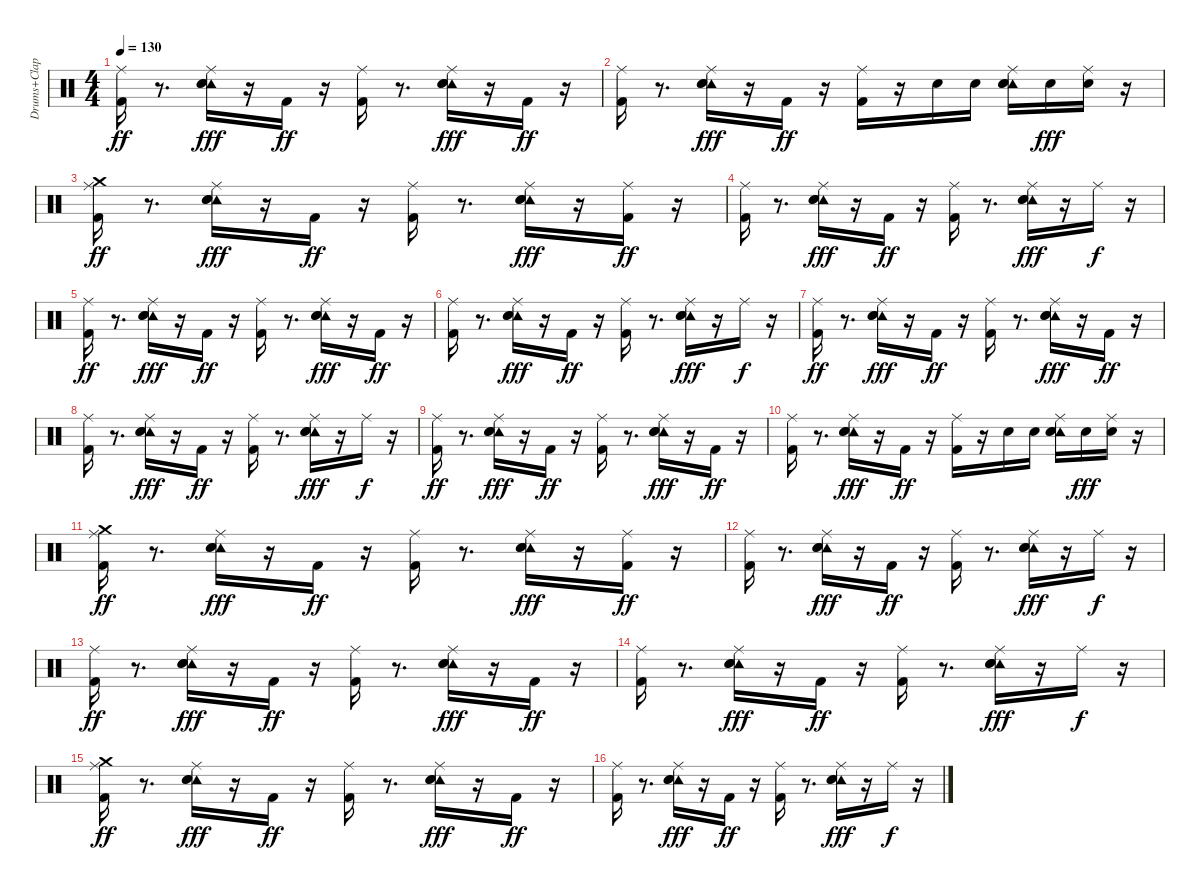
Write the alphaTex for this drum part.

\track ("Drums+Clap" "Drums+Clap") {instrument percussion}
\staff {score}
\articulation defaults
\ts (4 4)
\tempo 130
\clef neutral
\ks c
("Ride (middle)" "Kick (hit) 2").16{dy ff} r.8{d} ("Tambourine (hit)" "Ride (middle)" "Electric Snare (hit)" "Hand Clap (hit)").16{dy fff} r.16 "Kick (hit) 2".16{dy ff} r.16 ("Ride (middle)" "Kick (hit) 2").16 r.8{d} ("Tambourine (hit)" "Ride (middle)" "Electric Snare (hit)" "Hand Clap (hit)").16{dy fff} r.16 "Kick (hit) 2".16{dy ff} r.16 |
("Ride (middle)" "Kick (hit) 2").16 r.8{d} ("Tambourine (hit)" "Ride (middle)" "Electric Snare (hit)" "Hand Clap (hit)").16{dy fff} r.16 "Kick (hit) 2".16{dy ff} r.16 ("Ride (middle)" "Kick (hit) 2").16 r.16 "Electric Snare (hit)".16 "Electric Snare (hit)".16 ("Tambourine (hit)" "Ride (middle)" "Electric Snare (hit)" "Hand Clap (hit)").16 "Electric Snare (hit)".16{dy fff} ("Ride (middle)" "Electric Snare (hit)").16 r.16 |
("Crash medium (hit)" "Ride (middle)" "Kick (hit) 2").16{dy ff} r.8{d} ("Tambourine (hit)" "Ride (middle)" "Electric Snare (hit)" "Hand Clap (hit)").16{dy fff} r.16 "Kick (hit) 2".16{dy ff} r.16 ("Ride (middle)" "Kick (hit) 2").16 r.8{d} ("Tambourine (hit)" "Ride (middle)" "Electric Snare (hit)" "Hand Clap (hit)").16{dy fff} r.16 ("Ride (middle)" "Kick (hit) 2").16{dy ff} r.16 |
("Ride (middle)" "Kick (hit) 2").16 r.8{d} ("Tambourine (hit)" "Ride (middle)" "Electric Snare (hit)" "Hand Clap (hit)").16{dy fff} r.16 "Kick (hit) 2".16{dy ff} r.16 ("Ride (middle)" "Kick (hit) 2").16 r.8{d} ("Tambourine (hit)" "Ride (middle)" "Electric Snare (hit)" "Hand Clap (hit)").16{dy fff} r.16 "Ride (middle)".16{dy f} r.16 |
("Ride (middle)" "Kick (hit) 2").16{dy ff} r.8{d} ("Tambourine (hit)" "Ride (middle)" "Electric Snare (hit)" "Hand Clap (hit)").16{dy fff} r.16 "Kick (hit) 2".16{dy ff} r.16 ("Ride (middle)" "Kick (hit) 2").16 r.8{d} ("Tambourine (hit)" "Ride (middle)" "Electric Snare (hit)" "Hand Clap (hit)").16{dy fff} r.16 "Kick (hit) 2".16{dy ff} r.16 |
("Ride (middle)" "Kick (hit) 2").16 r.8{d} ("Tambourine (hit)" "Ride (middle)" "Electric Snare (hit)" "Hand Clap (hit)").16{dy fff} r.16 "Kick (hit) 2".16{dy ff} r.16 ("Ride (middle)" "Kick (hit) 2").16 r.8{d} ("Tambourine (hit)" "Ride (middle)" "Electric Snare (hit)" "Hand Clap (hit)").16{dy fff} r.16 "Ride (middle)".16{dy f} r.16 |
("Ride (middle)" "Kick (hit) 2").16{dy ff} r.8{d} ("Tambourine (hit)" "Ride (middle)" "Electric Snare (hit)" "Hand Clap (hit)").16{dy fff} r.16 "Kick (hit) 2".16{dy ff} r.16 ("Ride (middle)" "Kick (hit) 2").16 r.8{d} ("Tambourine (hit)" "Ride (middle)" "Electric Snare (hit)" "Hand Clap (hit)").16{dy fff} r.16 "Kick (hit) 2".16{dy ff} r.16 |
("Ride (middle)" "Kick (hit) 2").16 r.8{d} ("Tambourine (hit)" "Ride (middle)" "Electric Snare (hit)" "Hand Clap (hit)").16{dy fff} r.16 "Kick (hit) 2".16{dy ff} r.16 ("Ride (middle)" "Kick (hit) 2").16 r.8{d} ("Tambourine (hit)" "Ride (middle)" "Electric Snare (hit)" "Hand Clap (hit)").16{dy fff} r.16 "Ride (middle)".16{dy f} r.16 |
("Ride (middle)" "Kick (hit) 2").16{dy ff} r.8{d} ("Tambourine (hit)" "Ride (middle)" "Electric Snare (hit)" "Hand Clap (hit)").16{dy fff} r.16 "Kick (hit) 2".16{dy ff} r.16 ("Ride (middle)" "Kick (hit) 2").16 r.8{d} ("Tambourine (hit)" "Ride (middle)" "Electric Snare (hit)" "Hand Clap (hit)").16{dy fff} r.16 "Kick (hit) 2".16{dy ff} r.16 |
("Ride (middle)" "Kick (hit) 2").16 r.8{d} ("Tambourine (hit)" "Ride (middle)" "Electric Snare (hit)" "Hand Clap (hit)").16{dy fff} r.16 "Kick (hit) 2".16{dy ff} r.16 ("Ride (middle)" "Kick (hit) 2").16 r.16 "Electric Snare (hit)".16 "Electric Snare (hit)".16 ("Tambourine (hit)" "Ride (middle)" "Electric Snare (hit)" "Hand Clap (hit)").16 "Electric Snare (hit)".16{dy fff} ("Ride (middle)" "Electric Snare (hit)").16 r.16 |
("Crash medium (hit)" "Ride (middle)" "Kick (hit) 2").16{dy ff} r.8{d} ("Tambourine (hit)" "Ride (middle)" "Electric Snare (hit)" "Hand Clap (hit)").16{dy fff} r.16 "Kick (hit) 2".16{dy ff} r.16 ("Ride (middle)" "Kick (hit) 2").16 r.8{d} ("Tambourine (hit)" "Ride (middle)" "Electric Snare (hit)" "Hand Clap (hit)").16{dy fff} r.16 ("Ride (middle)" "Kick (hit) 2").16{dy ff} r.16 |
("Ride (middle)" "Kick (hit) 2").16 r.8{d} ("Tambourine (hit)" "Ride (middle)" "Electric Snare (hit)" "Hand Clap (hit)").16{dy fff} r.16 "Kick (hit) 2".16{dy ff} r.16 ("Ride (middle)" "Kick (hit) 2").16 r.8{d} ("Tambourine (hit)" "Ride (middle)" "Electric Snare (hit)" "Hand Clap (hit)").16{dy fff} r.16 "Ride (middle)".16{dy f} r.16 |
("Ride (middle)" "Kick (hit) 2").16{dy ff} r.8{d} ("Tambourine (hit)" "Ride (middle)" "Electric Snare (hit)" "Hand Clap (hit)").16{dy fff} r.16 "Kick (hit) 2".16{dy ff} r.16 ("Ride (middle)" "Kick (hit) 2").16 r.8{d} ("Tambourine (hit)" "Ride (middle)" "Electric Snare (hit)" "Hand Clap (hit)").16{dy fff} r.16 "Kick (hit) 2".16{dy ff} r.16 |
("Ride (middle)" "Kick (hit) 2").16 r.8{d} ("Tambourine (hit)" "Ride (middle)" "Electric Snare (hit)" "Hand Clap (hit)").16{dy fff} r.16 "Kick (hit) 2".16{dy ff} r.16 ("Ride (middle)" "Kick (hit) 2").16 r.8{d} ("Tambourine (hit)" "Ride (middle)" "Electric Snare (hit)" "Hand Clap (hit)").16{dy fff} r.16 "Ride (middle)".16{dy f} r.16 |
("Crash medium (hit)" "Ride (middle)" "Kick (hit) 2").16{dy ff} r.8{d} ("Tambourine (hit)" "Ride (middle)" "Electric Snare (hit)" "Hand Clap (hit)").16{dy fff} r.16 "Kick (hit) 2".16{dy ff} r.16 ("Ride (middle)" "Kick (hit) 2").16 r.8{d} ("Tambourine (hit)" "Ride (middle)" "Electric Snare (hit)" "Hand Clap (hit)").16{dy fff} r.16 "Kick (hit) 2".16{dy ff} r.16 |
("Ride (middle)" "Kick (hit) 2").16 r.8{d} ("Tambourine (hit)" "Ride (middle)" "Electric Snare (hit)" "Hand Clap (hit)").16{dy fff} r.16 "Kick (hit) 2".16{dy ff} r.16 ("Ride (middle)" "Kick (hit) 2").16 r.8{d} ("Tambourine (hit)" "Ride (middle)" "Electric Snare (hit)" "Hand Clap (hit)").16{dy fff} r.16 "Ride (middle)".16{dy f} r.16
